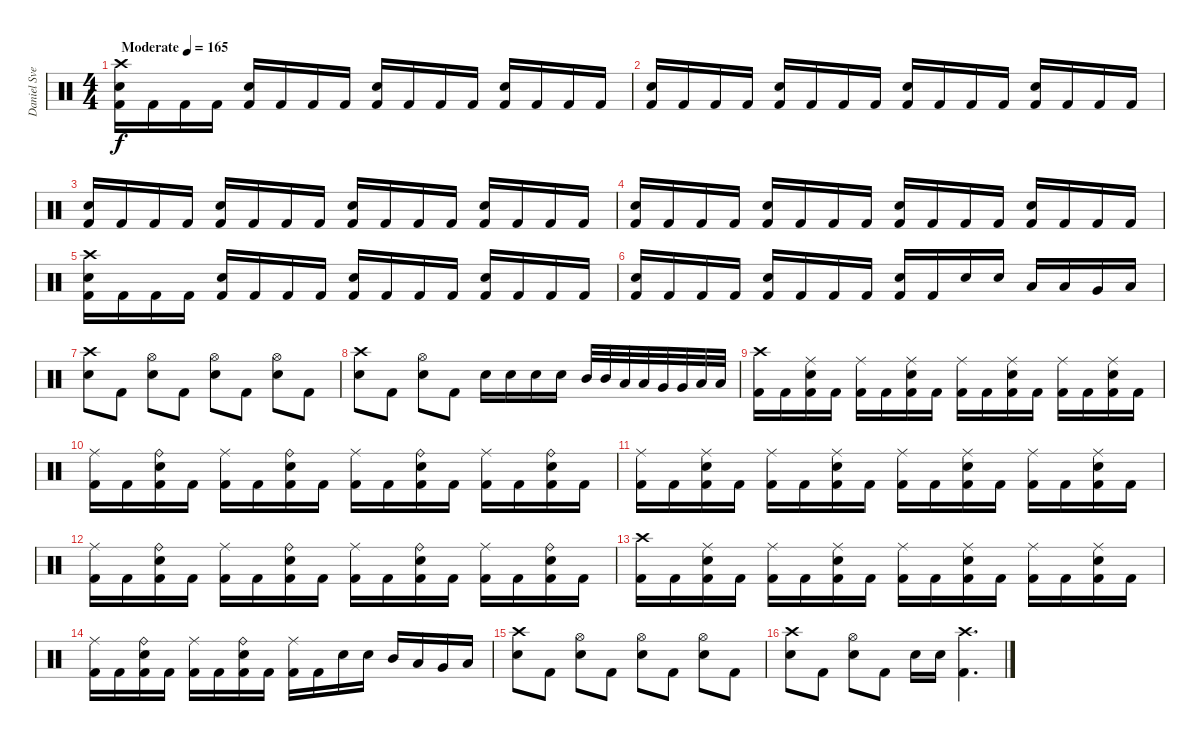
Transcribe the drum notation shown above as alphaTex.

\track ("Daniel Svensson" "Daniel Sve") {instrument percussion}
\staff {score}
\articulation defaults
\ts (4 4)
\tempo (165 "Moderate")
\clef neutral
\ks c
("Crash high (hit)" "Electric Snare (hit)" "Kick (hit) 2").16{dy f} "Kick (hit) 2".16 "Kick (hit) 2".16 "Kick (hit) 2".16 ("Electric Snare (hit)" "Kick (hit) 2").16 "Kick (hit) 2".16 "Kick (hit) 2".16 "Kick (hit) 2".16 ("Electric Snare (hit)" "Kick (hit) 2").16 "Kick (hit) 2".16 "Kick (hit) 2".16 "Kick (hit) 2".16 ("Electric Snare (hit)" "Kick (hit) 2").16 "Kick (hit) 2".16 "Kick (hit) 2".16 "Kick (hit) 2".16 |
("Electric Snare (hit)" "Kick (hit) 2").16 "Kick (hit) 2".16 "Kick (hit) 2".16 "Kick (hit) 2".16 ("Electric Snare (hit)" "Kick (hit) 2").16 "Kick (hit) 2".16 "Kick (hit) 2".16 "Kick (hit) 2".16 ("Electric Snare (hit)" "Kick (hit) 2").16 "Kick (hit) 2".16 "Kick (hit) 2".16 "Kick (hit) 2".16 ("Electric Snare (hit)" "Kick (hit) 2").16 "Kick (hit) 2".16 "Kick (hit) 2".16 "Kick (hit) 2".16 |
("Electric Snare (hit)" "Kick (hit) 2").16 "Kick (hit) 2".16 "Kick (hit) 2".16 "Kick (hit) 2".16 ("Electric Snare (hit)" "Kick (hit) 2").16 "Kick (hit) 2".16 "Kick (hit) 2".16 "Kick (hit) 2".16 ("Electric Snare (hit)" "Kick (hit) 2").16 "Kick (hit) 2".16 "Kick (hit) 2".16 "Kick (hit) 2".16 ("Electric Snare (hit)" "Kick (hit) 2").16 "Kick (hit) 2".16 "Kick (hit) 2".16 "Kick (hit) 2".16 |
("Electric Snare (hit)" "Kick (hit) 2").16 "Kick (hit) 2".16 "Kick (hit) 2".16 "Kick (hit) 2".16 ("Electric Snare (hit)" "Kick (hit) 2").16 "Kick (hit) 2".16 "Kick (hit) 2".16 "Kick (hit) 2".16 ("Electric Snare (hit)" "Kick (hit) 2").16 "Kick (hit) 2".16 "Kick (hit) 2".16 "Kick (hit) 2".16 ("Electric Snare (hit)" "Kick (hit) 2").16 "Kick (hit) 2".16 "Kick (hit) 2".16 "Kick (hit) 2".16 |
("Crash high (hit)" "Electric Snare (hit)" "Kick (hit) 2").16 "Kick (hit) 2".16 "Kick (hit) 2".16 "Kick (hit) 2".16 ("Electric Snare (hit)" "Kick (hit) 2").16 "Kick (hit) 2".16 "Kick (hit) 2".16 "Kick (hit) 2".16 ("Electric Snare (hit)" "Kick (hit) 2").16 "Kick (hit) 2".16 "Kick (hit) 2".16 "Kick (hit) 2".16 ("Electric Snare (hit)" "Kick (hit) 2").16 "Kick (hit) 2".16 "Kick (hit) 2".16 "Kick (hit) 2".16 |
("Electric Snare (hit)" "Kick (hit) 2").16 "Kick (hit) 2".16 "Kick (hit) 2".16 "Kick (hit) 2".16 ("Electric Snare (hit)" "Kick (hit) 2").16 "Kick (hit) 2".16 "Kick (hit) 2".16 "Kick (hit) 2".16 ("Electric Snare (hit)" "Kick (hit) 2").16 "Kick (hit) 2".16 "Electric Snare (hit)".16 "Electric Snare (hit)".16 "Low Tom (hit)".16 "Low Tom (hit)".16 "Very Low Tom (hit)".16 "Low Floor Tom (hit)".16 |
("Crash high (hit)" "Electric Snare (hit)").8 "Kick (hit) 2".8 ("Hi-Hat (open)" "Electric Snare (hit)").8 "Kick (hit) 2".8 ("Hi-Hat (open)" "Electric Snare (hit)").8 "Kick (hit) 2".8 ("Hi-Hat (open)" "Electric Snare (hit)").8 "Kick (hit) 2".8 |
("Crash high (hit)" "Electric Snare (hit)").8 "Kick (hit) 2".8 ("Hi-Hat (open)" "Electric Snare (hit)").8 "Kick (hit) 2".8 "Electric Snare (hit)".16 "Electric Snare (hit)".16 "Electric Snare (hit)".16 "Electric Snare (hit)".16 "Mid Tom (hit)".32 "Mid Tom (hit)".32 "Low Tom (hit)".32 "Low Tom (hit)".32 "Very Low Tom (hit)".32 "Very Low Tom (hit)".32 "Low Floor Tom (hit)".32 "Low Floor Tom (hit)".32 |
("Crash high (hit)" "Kick (hit) 2").16 "Kick (hit) 2".16 ("Ride (middle)" "Electric Snare (hit)" "Kick (hit) 2").16 "Kick (hit) 2".16 ("Ride (middle)" "Kick (hit) 2").16 "Kick (hit) 2".16 ("Ride (middle)" "Electric Snare (hit)" "Kick (hit) 2").16 "Kick (hit) 2".16 ("Ride (middle)" "Kick (hit) 2").16 "Kick (hit) 2".16 ("Ride (middle)" "Electric Snare (hit)" "Kick (hit) 2").16 "Kick (hit) 2".16 ("Ride (middle)" "Kick (hit) 2").16 "Kick (hit) 2".16 ("Ride (middle)" "Electric Snare (hit)" "Kick (hit) 2").16 "Kick (hit) 2".16 |
("Ride (middle)" "Kick (hit) 2").16 "Kick (hit) 2".16 ("Ride (bell)" "Electric Snare (hit)" "Kick (hit) 2").16 "Kick (hit) 2".16 ("Ride (middle)" "Kick (hit) 2").16 "Kick (hit) 2".16 ("Ride (bell)" "Electric Snare (hit)" "Kick (hit) 2").16 "Kick (hit) 2".16 ("Ride (middle)" "Kick (hit) 2").16 "Kick (hit) 2".16 ("Ride (bell)" "Electric Snare (hit)" "Kick (hit) 2").16 "Kick (hit) 2".16 ("Ride (middle)" "Kick (hit) 2").16 "Kick (hit) 2".16 ("Ride (bell)" "Electric Snare (hit)" "Kick (hit) 2").16 "Kick (hit) 2".16 |
("Ride (middle)" "Kick (hit) 2").16 "Kick (hit) 2".16 ("Ride (middle)" "Electric Snare (hit)" "Kick (hit) 2").16 "Kick (hit) 2".16 ("Ride (middle)" "Kick (hit) 2").16 "Kick (hit) 2".16 ("Ride (middle)" "Electric Snare (hit)" "Kick (hit) 2").16 "Kick (hit) 2".16 ("Ride (middle)" "Kick (hit) 2").16 "Kick (hit) 2".16 ("Ride (middle)" "Electric Snare (hit)" "Kick (hit) 2").16 "Kick (hit) 2".16 ("Ride (middle)" "Kick (hit) 2").16 "Kick (hit) 2".16 ("Ride (middle)" "Electric Snare (hit)" "Kick (hit) 2").16 "Kick (hit) 2".16 |
("Ride (middle)" "Kick (hit) 2").16 "Kick (hit) 2".16 ("Ride (bell)" "Electric Snare (hit)" "Kick (hit) 2").16 "Kick (hit) 2".16 ("Ride (middle)" "Kick (hit) 2").16 "Kick (hit) 2".16 ("Ride (bell)" "Electric Snare (hit)" "Kick (hit) 2").16 "Kick (hit) 2".16 ("Ride (middle)" "Kick (hit) 2").16 "Kick (hit) 2".16 ("Ride (bell)" "Electric Snare (hit)" "Kick (hit) 2").16 "Kick (hit) 2".16 ("Ride (middle)" "Kick (hit) 2").16 "Kick (hit) 2".16 ("Ride (bell)" "Electric Snare (hit)" "Kick (hit) 2").16 "Kick (hit) 2".16 |
("Crash high (hit)" "Kick (hit) 2").16 "Kick (hit) 2".16 ("Ride (middle)" "Electric Snare (hit)" "Kick (hit) 2").16 "Kick (hit) 2".16 ("Ride (middle)" "Kick (hit) 2").16 "Kick (hit) 2".16 ("Ride (middle)" "Electric Snare (hit)" "Kick (hit) 2").16 "Kick (hit) 2".16 ("Ride (middle)" "Kick (hit) 2").16 "Kick (hit) 2".16 ("Ride (middle)" "Electric Snare (hit)" "Kick (hit) 2").16 "Kick (hit) 2".16 ("Ride (middle)" "Kick (hit) 2").16 "Kick (hit) 2".16 ("Ride (middle)" "Electric Snare (hit)" "Kick (hit) 2").16 "Kick (hit) 2".16 |
("Ride (middle)" "Kick (hit) 2").16 "Kick (hit) 2".16 ("Ride (bell)" "Electric Snare (hit)" "Kick (hit) 2").16 "Kick (hit) 2".16 ("Ride (middle)" "Kick (hit) 2").16 "Kick (hit) 2".16 ("Ride (bell)" "Electric Snare (hit)" "Kick (hit) 2").16 "Kick (hit) 2".16 ("Ride (middle)" "Kick (hit) 2").16 "Kick (hit) 2".16 "Electric Snare (hit)".16 "Electric Snare (hit)".16 "Mid Tom (hit)".16 "Low Tom (hit)".16 "Very Low Tom (hit)".16 "Low Floor Tom (hit)".16 |
("Crash high (hit)" "Electric Snare (hit)").8 "Kick (hit) 2".8 ("Hi-Hat (open)" "Electric Snare (hit)").8 "Kick (hit) 2".8 ("Hi-Hat (open)" "Electric Snare (hit)").8 "Kick (hit) 2".8 ("Hi-Hat (open)" "Electric Snare (hit)").8 "Kick (hit) 2".8 |
("Crash high (hit)" "Electric Snare (hit)").8 "Kick (hit) 2".8 ("Hi-Hat (open)" "Electric Snare (hit)").8 "Kick (hit) 2".8 "Electric Snare (hit)".16 "Electric Snare (hit)".16 ("Crash high (hit)" "Kick (hit) 2").4{d}
